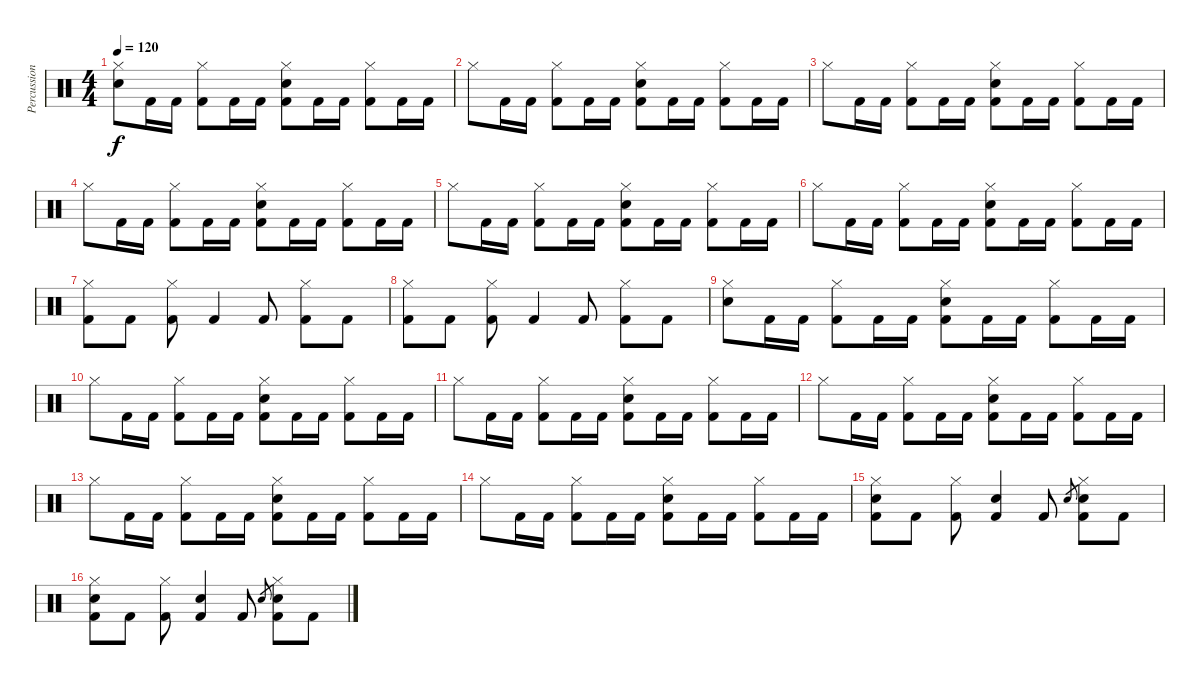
\track ("Percussion" "Percussion") {instrument percussion}
\staff {score}
\articulation defaults
\ts (4 4)
\tempo 120
\clef neutral
\ks c
("Hi-Hat (closed)" "Snare (hit) 2").8{dy f} "Kick (hit) 2".16 "Kick (hit) 2".16 ("Hi-Hat (closed)" "Kick (hit) 2").8 "Kick (hit) 2".16 "Kick (hit) 2".16 ("Hi-Hat (closed)" "Snare (hit) 2" "Kick (hit) 2").8 "Kick (hit) 2".16 "Kick (hit) 2".16 ("Hi-Hat (closed)" "Kick (hit) 2").8 "Kick (hit) 2".16 "Kick (hit) 2".16 |
"Hi-Hat (closed)".8 "Kick (hit) 2".16 "Kick (hit) 2".16 ("Hi-Hat (closed)" "Kick (hit) 2").8 "Kick (hit) 2".16 "Kick (hit) 2".16 ("Hi-Hat (closed)" "Snare (hit) 2" "Kick (hit) 2").8 "Kick (hit) 2".16 "Kick (hit) 2".16 ("Hi-Hat (closed)" "Kick (hit) 2").8 "Kick (hit) 2".16 "Kick (hit) 2".16 |
"Hi-Hat (closed)".8 "Kick (hit) 2".16 "Kick (hit) 2".16 ("Hi-Hat (closed)" "Kick (hit) 2").8 "Kick (hit) 2".16 "Kick (hit) 2".16 ("Hi-Hat (closed)" "Snare (hit) 2" "Kick (hit) 2").8 "Kick (hit) 2".16 "Kick (hit) 2".16 ("Hi-Hat (closed)" "Kick (hit) 2").8 "Kick (hit) 2".16 "Kick (hit) 2".16 |
"Hi-Hat (closed)".8 "Kick (hit) 2".16 "Kick (hit) 2".16 ("Hi-Hat (closed)" "Kick (hit) 2").8 "Kick (hit) 2".16 "Kick (hit) 2".16 ("Hi-Hat (closed)" "Snare (hit) 2" "Kick (hit) 2").8 "Kick (hit) 2".16 "Kick (hit) 2".16 ("Hi-Hat (closed)" "Kick (hit) 2").8 "Kick (hit) 2".16 "Kick (hit) 2".16 |
"Hi-Hat (closed)".8 "Kick (hit) 2".16 "Kick (hit) 2".16 ("Hi-Hat (closed)" "Kick (hit) 2").8 "Kick (hit) 2".16 "Kick (hit) 2".16 ("Hi-Hat (closed)" "Snare (hit) 2" "Kick (hit) 2").8 "Kick (hit) 2".16 "Kick (hit) 2".16 ("Hi-Hat (closed)" "Kick (hit) 2").8 "Kick (hit) 2".16 "Kick (hit) 2".16 |
"Hi-Hat (closed)".8 "Kick (hit) 2".16 "Kick (hit) 2".16 ("Hi-Hat (closed)" "Kick (hit) 2").8 "Kick (hit) 2".16 "Kick (hit) 2".16 ("Hi-Hat (closed)" "Snare (hit) 2" "Kick (hit) 2").8 "Kick (hit) 2".16 "Kick (hit) 2".16 ("Hi-Hat (closed)" "Kick (hit) 2").8 "Kick (hit) 2".16 "Kick (hit) 2".16 |
("Hi-Hat (closed)" "Kick (hit) 2").8 "Kick (hit) 2".8 ("Hi-Hat (closed)" "Kick (hit) 2").8 "Kick (hit) 2".4 "Kick (hit) 2".8 ("Hi-Hat (closed)" "Kick (hit) 2").8 "Kick (hit) 2".8 |
("Hi-Hat (closed)" "Kick (hit) 2").8 "Kick (hit) 2".8 ("Hi-Hat (closed)" "Kick (hit) 2").8 "Kick (hit) 2".4 "Kick (hit) 2".8 ("Hi-Hat (closed)" "Kick (hit) 2").8 "Kick (hit) 2".8 |
("Hi-Hat (closed)" "Snare (hit) 2").8 "Kick (hit) 2".16 "Kick (hit) 2".16 ("Hi-Hat (closed)" "Kick (hit) 2").8 "Kick (hit) 2".16 "Kick (hit) 2".16 ("Hi-Hat (closed)" "Snare (hit) 2" "Kick (hit) 2").8 "Kick (hit) 2".16 "Kick (hit) 2".16 ("Hi-Hat (closed)" "Kick (hit) 2").8 "Kick (hit) 2".16 "Kick (hit) 2".16 |
"Hi-Hat (closed)".8 "Kick (hit) 2".16 "Kick (hit) 2".16 ("Hi-Hat (closed)" "Kick (hit) 2").8 "Kick (hit) 2".16 "Kick (hit) 2".16 ("Hi-Hat (closed)" "Snare (hit) 2" "Kick (hit) 2").8 "Kick (hit) 2".16 "Kick (hit) 2".16 ("Hi-Hat (closed)" "Kick (hit) 2").8 "Kick (hit) 2".16 "Kick (hit) 2".16 |
"Hi-Hat (closed)".8 "Kick (hit) 2".16 "Kick (hit) 2".16 ("Hi-Hat (closed)" "Kick (hit) 2").8 "Kick (hit) 2".16 "Kick (hit) 2".16 ("Hi-Hat (closed)" "Snare (hit) 2" "Kick (hit) 2").8 "Kick (hit) 2".16 "Kick (hit) 2".16 ("Hi-Hat (closed)" "Kick (hit) 2").8 "Kick (hit) 2".16 "Kick (hit) 2".16 |
"Hi-Hat (closed)".8 "Kick (hit) 2".16 "Kick (hit) 2".16 ("Hi-Hat (closed)" "Kick (hit) 2").8 "Kick (hit) 2".16 "Kick (hit) 2".16 ("Hi-Hat (closed)" "Snare (hit) 2" "Kick (hit) 2").8 "Kick (hit) 2".16 "Kick (hit) 2".16 ("Hi-Hat (closed)" "Kick (hit) 2").8 "Kick (hit) 2".16 "Kick (hit) 2".16 |
"Hi-Hat (closed)".8 "Kick (hit) 2".16 "Kick (hit) 2".16 ("Hi-Hat (closed)" "Kick (hit) 2").8 "Kick (hit) 2".16 "Kick (hit) 2".16 ("Hi-Hat (closed)" "Snare (hit) 2" "Kick (hit) 2").8 "Kick (hit) 2".16 "Kick (hit) 2".16 ("Hi-Hat (closed)" "Kick (hit) 2").8 "Kick (hit) 2".16 "Kick (hit) 2".16 |
"Hi-Hat (closed)".8 "Kick (hit) 2".16 "Kick (hit) 2".16 ("Hi-Hat (closed)" "Kick (hit) 2").8 "Kick (hit) 2".16 "Kick (hit) 2".16 ("Hi-Hat (closed)" "Snare (hit) 2" "Kick (hit) 2").8 "Kick (hit) 2".16 "Kick (hit) 2".16 ("Hi-Hat (closed)" "Kick (hit) 2").8 "Kick (hit) 2".16 "Kick (hit) 2".16 |
("Hi-Hat (closed)" "Snare (hit) 2" "Kick (hit) 2").8 "Kick (hit) 2".8 ("Hi-Hat (closed)" "Kick (hit) 2").8 ("Snare (hit) 2" "Kick (hit) 2").4 "Kick (hit) 2".8 "Snare (hit) 2".8{gr} ("Hi-Hat (closed)" "Snare (hit) 2" "Kick (hit) 2").8 "Kick (hit) 2".8 |
("Hi-Hat (closed)" "Snare (hit) 2" "Kick (hit) 2").8 "Kick (hit) 2".8 ("Hi-Hat (closed)" "Kick (hit) 2").8 ("Snare (hit) 2" "Kick (hit) 2").4 "Kick (hit) 2".8 "Snare (hit) 2".8{gr} ("Hi-Hat (closed)" "Snare (hit) 2" "Kick (hit) 2").8 "Kick (hit) 2".8
